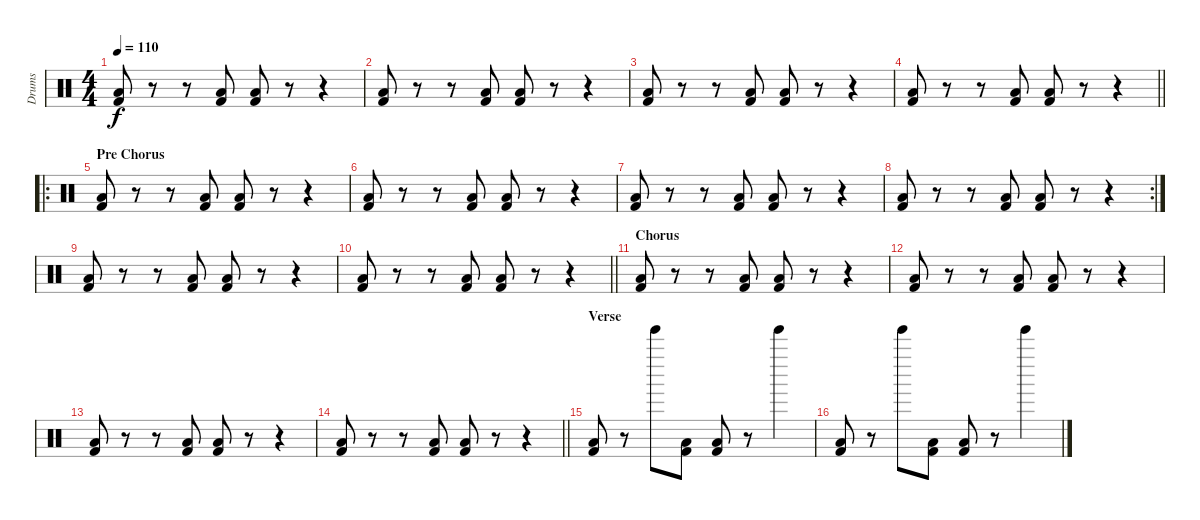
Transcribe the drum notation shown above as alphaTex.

\track ("Drums" "Drums") {instrument percussion}
\staff {score}
\articulation defaults
\ts (4 4)
\tempo 110
\clef neutral
\ks c
("Low Floor Tom (hit)" "Kick (hit) 2").8{dy f} r.8 r.8 ("Low Floor Tom (hit)" "Kick (hit) 2").8 ("Low Floor Tom (hit)" "Kick (hit) 2").8 r.8 r.4 |
("Low Floor Tom (hit)" "Kick (hit) 2").8 r.8 r.8 ("Low Floor Tom (hit)" "Kick (hit) 2").8 ("Low Floor Tom (hit)" "Kick (hit) 2").8 r.8 r.4 |
("Low Floor Tom (hit)" "Kick (hit) 2").8 r.8 r.8 ("Low Floor Tom (hit)" "Kick (hit) 2").8 ("Low Floor Tom (hit)" "Kick (hit) 2").8 r.8 r.4 |
\barLineRight lightlight
("Low Floor Tom (hit)" "Kick (hit) 2").8 r.8 r.8 ("Low Floor Tom (hit)" "Kick (hit) 2").8 ("Low Floor Tom (hit)" "Kick (hit) 2").8 r.8 r.4 |
\ro
\section ("" "Pre Chorus")
("Low Floor Tom (hit)" "Kick (hit) 2").8 r.8 r.8 ("Low Floor Tom (hit)" "Kick (hit) 2").8 ("Low Floor Tom (hit)" "Kick (hit) 2").8 r.8 r.4 |
("Low Floor Tom (hit)" "Kick (hit) 2").8 r.8 r.8 ("Low Floor Tom (hit)" "Kick (hit) 2").8 ("Low Floor Tom (hit)" "Kick (hit) 2").8 r.8 r.4 |
("Low Floor Tom (hit)" "Kick (hit) 2").8 r.8 r.8 ("Low Floor Tom (hit)" "Kick (hit) 2").8 ("Low Floor Tom (hit)" "Kick (hit) 2").8 r.8 r.4 |
\rc 2
("Low Floor Tom (hit)" "Kick (hit) 2").8 r.8 r.8 ("Low Floor Tom (hit)" "Kick (hit) 2").8 ("Low Floor Tom (hit)" "Kick (hit) 2").8 r.8 r.4 |
("Low Floor Tom (hit)" "Kick (hit) 2").8 r.8 r.8 ("Low Floor Tom (hit)" "Kick (hit) 2").8 ("Low Floor Tom (hit)" "Kick (hit) 2").8 r.8 r.4 |
\barLineRight lightlight
("Low Floor Tom (hit)" "Kick (hit) 2").8 r.8 r.8 ("Low Floor Tom (hit)" "Kick (hit) 2").8 ("Low Floor Tom (hit)" "Kick (hit) 2").8 r.8 r.4 |
\section ("" "Chorus")
("Low Floor Tom (hit)" "Kick (hit) 2").8 r.8 r.8 ("Low Floor Tom (hit)" "Kick (hit) 2").8 ("Low Floor Tom (hit)" "Kick (hit) 2").8 r.8 r.4 |
("Low Floor Tom (hit)" "Kick (hit) 2").8 r.8 r.8 ("Low Floor Tom (hit)" "Kick (hit) 2").8 ("Low Floor Tom (hit)" "Kick (hit) 2").8 r.8 r.4 |
("Low Floor Tom (hit)" "Kick (hit) 2").8 r.8 r.8 ("Low Floor Tom (hit)" "Kick (hit) 2").8 ("Low Floor Tom (hit)" "Kick (hit) 2").8 r.8 r.4 |
\barLineRight lightlight
("Low Floor Tom (hit)" "Kick (hit) 2").8 r.8 r.8 ("Low Floor Tom (hit)" "Kick (hit) 2").8 ("Low Floor Tom (hit)" "Kick (hit) 2").8 r.8 r.4 |
\section ("" "Verse")
("Low Floor Tom (hit)" "Kick (hit) 2").8 r.8 "Tinkle Bell (hit)".8 ("Low Floor Tom (hit)" "Kick (hit) 2").8 ("Low Floor Tom (hit)" "Kick (hit) 2").8 r.8 "Tinkle Bell (hit)".4 |
("Low Floor Tom (hit)" "Kick (hit) 2").8 r.8 "Tinkle Bell (hit)".8 ("Low Floor Tom (hit)" "Kick (hit) 2").8 ("Low Floor Tom (hit)" "Kick (hit) 2").8 r.8 "Tinkle Bell (hit)".4
